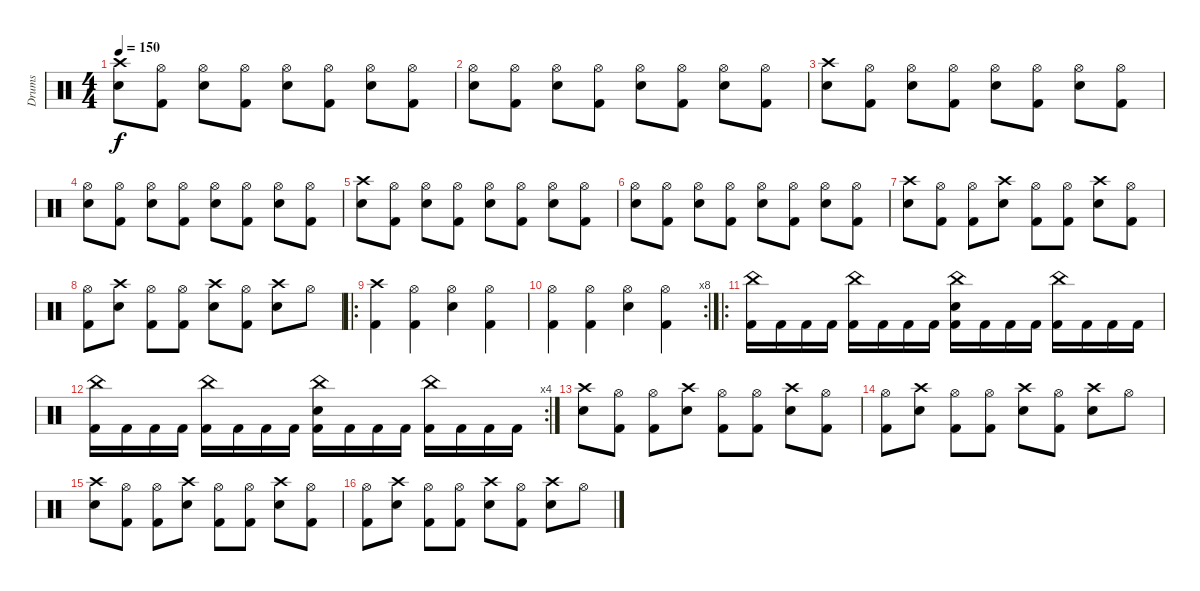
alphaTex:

\track ("Drums" "Drums") {instrument percussion}
\staff {score}
\articulation defaults
\ts (4 4)
\tempo 150
\clef neutral
\ks c
("Crash high (hit)" "Snare (hit) 2").8{dy f} ("Hi-Hat (open)" "Kick (hit) 2").8 ("Hi-Hat (open)" "Snare (hit) 2").8 ("Hi-Hat (open)" "Kick (hit) 2").8 ("Hi-Hat (open)" "Snare (hit) 2").8 ("Hi-Hat (open)" "Kick (hit) 2").8 ("Hi-Hat (open)" "Snare (hit) 2").8 ("Hi-Hat (open)" "Kick (hit) 2").8 |
("Hi-Hat (open)" "Snare (hit) 2").8 ("Hi-Hat (open)" "Kick (hit) 2").8 ("Hi-Hat (open)" "Snare (hit) 2").8 ("Hi-Hat (open)" "Kick (hit) 2").8 ("Hi-Hat (open)" "Snare (hit) 2").8 ("Hi-Hat (open)" "Kick (hit) 2").8 ("Hi-Hat (open)" "Snare (hit) 2").8 ("Hi-Hat (open)" "Kick (hit) 2").8 |
("Crash high (hit)" "Snare (hit) 2").8 ("Hi-Hat (open)" "Kick (hit) 2").8 ("Hi-Hat (open)" "Snare (hit) 2").8 ("Hi-Hat (open)" "Kick (hit) 2").8 ("Hi-Hat (open)" "Snare (hit) 2").8 ("Hi-Hat (open)" "Kick (hit) 2").8 ("Hi-Hat (open)" "Snare (hit) 2").8 ("Hi-Hat (open)" "Kick (hit) 2").8 |
("Hi-Hat (open)" "Snare (hit) 2").8 ("Hi-Hat (open)" "Kick (hit) 2").8 ("Hi-Hat (open)" "Snare (hit) 2").8 ("Hi-Hat (open)" "Kick (hit) 2").8 ("Hi-Hat (open)" "Snare (hit) 2").8 ("Hi-Hat (open)" "Kick (hit) 2").8 ("Hi-Hat (open)" "Snare (hit) 2").8 ("Hi-Hat (open)" "Kick (hit) 2").8 |
("Crash high (hit)" "Snare (hit) 2").8 ("Hi-Hat (open)" "Kick (hit) 2").8 ("Hi-Hat (open)" "Snare (hit) 2").8 ("Hi-Hat (open)" "Kick (hit) 2").8 ("Hi-Hat (open)" "Snare (hit) 2").8 ("Hi-Hat (open)" "Kick (hit) 2").8 ("Hi-Hat (open)" "Snare (hit) 2").8 ("Hi-Hat (open)" "Kick (hit) 2").8 |
("Hi-Hat (open)" "Snare (hit) 2").8 ("Hi-Hat (open)" "Kick (hit) 2").8 ("Hi-Hat (open)" "Snare (hit) 2").8 ("Hi-Hat (open)" "Kick (hit) 2").8 ("Hi-Hat (open)" "Snare (hit) 2").8 ("Hi-Hat (open)" "Kick (hit) 2").8 ("Hi-Hat (open)" "Snare (hit) 2").8 ("Hi-Hat (open)" "Kick (hit) 2").8 |
("Crash high (hit)" "Snare (hit) 2").8 ("Hi-Hat (open)" "Kick (hit) 2").8 ("Hi-Hat (open)" "Kick (hit) 2").8 ("Crash high (hit)" "Snare (hit) 2").8 ("Hi-Hat (open)" "Kick (hit) 2").8 ("Hi-Hat (open)" "Kick (hit) 2").8 ("Crash high (hit)" "Snare (hit) 2").8 ("Hi-Hat (open)" "Kick (hit) 2").8 |
("Hi-Hat (open)" "Kick (hit) 2").8 ("Crash high (hit)" "Snare (hit) 2").8 ("Hi-Hat (open)" "Kick (hit) 2").8 ("Hi-Hat (open)" "Kick (hit) 2").8 ("Crash high (hit)" "Snare (hit) 2").8 ("Hi-Hat (open)" "Kick (hit) 2").8 ("Crash high (hit)" "Snare (hit) 2").8 "Hi-Hat (open)".8 |
\ro
("Crash high (hit)" "Kick (hit) 2").4 ("Hi-Hat (open)" "Kick (hit) 2").4 ("Hi-Hat (open)" "Snare (hit) 2").4 ("Hi-Hat (open)" "Kick (hit) 2").4 |
\rc 8
("Hi-Hat (open)" "Kick (hit) 2").4 ("Hi-Hat (open)" "Kick (hit) 2").4 ("Hi-Hat (open)" "Snare (hit) 2").4 ("Hi-Hat (open)" "Kick (hit) 2").4 |
\ro
("China (hit)" "Kick (hit) 2").16 "Kick (hit) 2".16 "Kick (hit) 2".16 "Kick (hit) 2".16 ("China (hit)" "Kick (hit) 2").16 "Kick (hit) 2".16 "Kick (hit) 2".16 "Kick (hit) 2".16 ("China (hit)" "Snare (hit) 2" "Kick (hit) 2").16 "Kick (hit) 2".16 "Kick (hit) 2".16 "Kick (hit) 2".16 ("China (hit)" "Kick (hit) 2").16 "Kick (hit) 2".16 "Kick (hit) 2".16 "Kick (hit) 2".16 |
\rc 4
("China (hit)" "Kick (hit) 2").16 "Kick (hit) 2".16 "Kick (hit) 2".16 "Kick (hit) 2".16 ("China (hit)" "Kick (hit) 2").16 "Kick (hit) 2".16 "Kick (hit) 2".16 "Kick (hit) 2".16 ("China (hit)" "Snare (hit) 2" "Kick (hit) 2").16 "Kick (hit) 2".16 "Kick (hit) 2".16 "Kick (hit) 2".16 ("China (hit)" "Kick (hit) 2").16 "Kick (hit) 2".16 "Kick (hit) 2".16 "Kick (hit) 2".16 |
("Crash high (hit)" "Snare (hit) 2").8 ("Hi-Hat (open)" "Kick (hit) 2").8 ("Hi-Hat (open)" "Kick (hit) 2").8 ("Crash high (hit)" "Snare (hit) 2").8 ("Hi-Hat (open)" "Kick (hit) 2").8 ("Hi-Hat (open)" "Kick (hit) 2").8 ("Crash high (hit)" "Snare (hit) 2").8 ("Hi-Hat (open)" "Kick (hit) 2").8 |
("Hi-Hat (open)" "Kick (hit) 2").8 ("Crash high (hit)" "Snare (hit) 2").8 ("Hi-Hat (open)" "Kick (hit) 2").8 ("Hi-Hat (open)" "Kick (hit) 2").8 ("Crash high (hit)" "Snare (hit) 2").8 ("Hi-Hat (open)" "Kick (hit) 2").8 ("Crash high (hit)" "Snare (hit) 2").8 "Hi-Hat (open)".8 |
("Crash high (hit)" "Snare (hit) 2").8 ("Hi-Hat (open)" "Kick (hit) 2").8 ("Hi-Hat (open)" "Kick (hit) 2").8 ("Crash high (hit)" "Snare (hit) 2").8 ("Hi-Hat (open)" "Kick (hit) 2").8 ("Hi-Hat (open)" "Kick (hit) 2").8 ("Crash high (hit)" "Snare (hit) 2").8 ("Hi-Hat (open)" "Kick (hit) 2").8 |
("Hi-Hat (open)" "Kick (hit) 2").8 ("Crash high (hit)" "Snare (hit) 2").8 ("Hi-Hat (open)" "Kick (hit) 2").8 ("Hi-Hat (open)" "Kick (hit) 2").8 ("Crash high (hit)" "Snare (hit) 2").8 ("Hi-Hat (open)" "Kick (hit) 2").8 ("Crash high (hit)" "Snare (hit) 2").8 "Hi-Hat (open)".8
